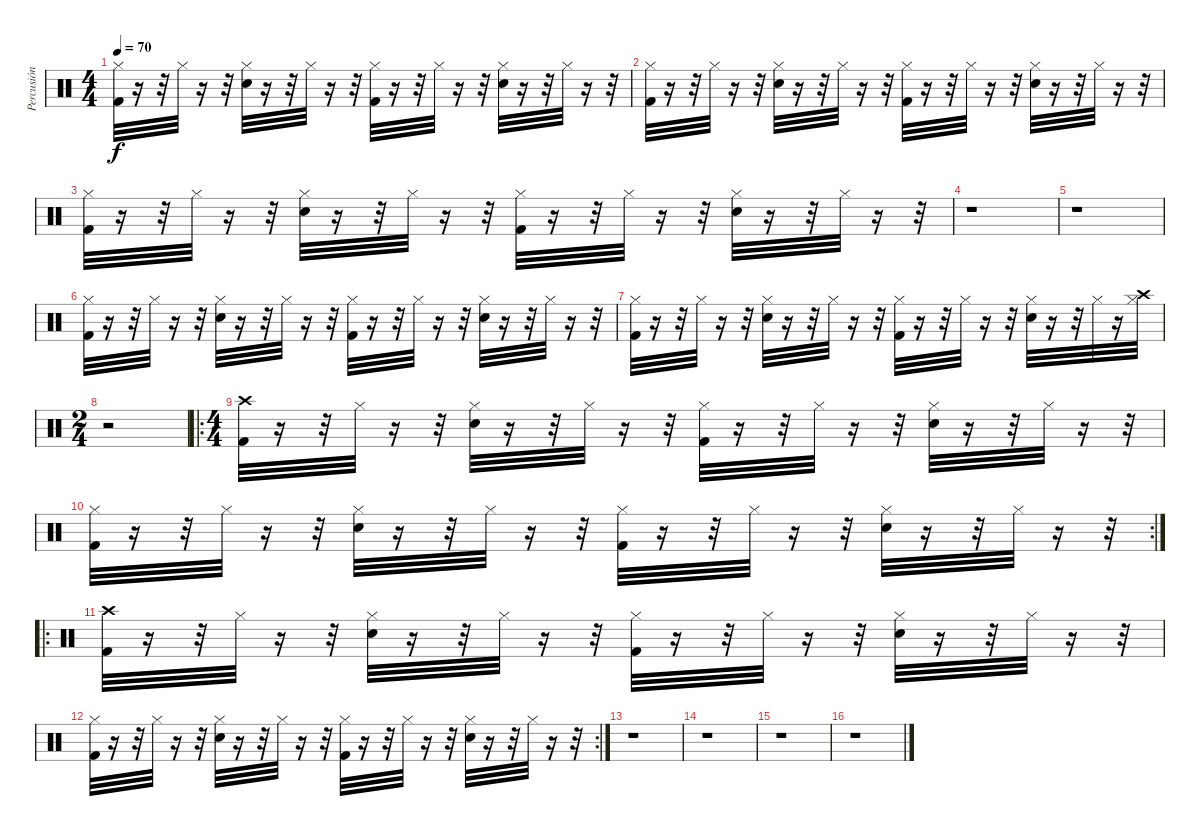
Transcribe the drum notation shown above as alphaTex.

\track ("Percusión" "Percusión") {instrument percussion}
\staff {score}
\articulation defaults
\ts (4 4)
\tempo 70
\clef neutral
\ks c
("Hi-Hat (closed)" "Kick (hit) 2").32{dy f} r.16 r.32 "Hi-Hat (closed)".32 r.16 r.32 ("Snare (hit) 2" "Hi-Hat (closed)").32 r.16 r.32 "Hi-Hat (closed)".32 r.16 r.32 ("Hi-Hat (closed)" "Kick (hit) 2").32 r.16 r.32 "Hi-Hat (closed)".32 r.16 r.32 ("Snare (hit) 2" "Hi-Hat (closed)").32 r.16 r.32 "Hi-Hat (closed)".32 r.16 r.32 |
("Hi-Hat (closed)" "Kick (hit) 2").32 r.16 r.32 "Hi-Hat (closed)".32 r.16 r.32 ("Snare (hit) 2" "Hi-Hat (closed)").32 r.16 r.32 "Hi-Hat (closed)".32 r.16 r.32 ("Hi-Hat (closed)" "Kick (hit) 2").32 r.16 r.32 "Hi-Hat (closed)".32 r.16 r.32 ("Snare (hit) 2" "Hi-Hat (closed)").32 r.16 r.32 "Hi-Hat (closed)".32 r.16 r.32 |
("Hi-Hat (closed)" "Kick (hit) 2").32 r.16 r.32 "Hi-Hat (closed)".32 r.16 r.32 ("Snare (hit) 2" "Hi-Hat (closed)").32 r.16 r.32 "Hi-Hat (closed)".32 r.16 r.32 ("Hi-Hat (closed)" "Kick (hit) 2").32 r.16 r.32 "Hi-Hat (closed)".32 r.16 r.32 ("Snare (hit) 2" "Hi-Hat (closed)").32 r.16 r.32 "Hi-Hat (closed)".32 r.16 r.32 |
r.1 |
r.1 |
("Hi-Hat (closed)" "Kick (hit) 2").32 r.16 r.32 "Hi-Hat (closed)".32 r.16 r.32 ("Snare (hit) 2" "Hi-Hat (closed)").32 r.16 r.32 "Hi-Hat (closed)".32 r.16 r.32 ("Hi-Hat (closed)" "Kick (hit) 2").32 r.16 r.32 "Hi-Hat (closed)".32 r.16 r.32 ("Snare (hit) 2" "Hi-Hat (closed)").32 r.16 r.32 "Hi-Hat (closed)".32 r.16 r.32 |
("Hi-Hat (closed)" "Kick (hit) 2").32 r.16 r.32 "Hi-Hat (closed)".32 r.16 r.32 ("Snare (hit) 2" "Hi-Hat (closed)").32 r.16 r.32 "Hi-Hat (closed)".32 r.16 r.32 ("Hi-Hat (closed)" "Kick (hit) 2").32 r.16 r.32 "Hi-Hat (closed)".32 r.16 r.32 ("Snare (hit) 2" "Hi-Hat (closed)").32 r.16 r.32 "Hi-Hat (closed)".32 r.16 ("Crash high (hit)" "Hi-Hat (closed)").32 |
\ts (2 4)
r.2 |
\ro
\ts (4 4)
("Kick (hit) 2" "Crash high (hit)").32 r.16 r.32 "Hi-Hat (closed)".32 r.16 r.32 ("Snare (hit) 2" "Hi-Hat (closed)").32 r.16 r.32 "Hi-Hat (closed)".32 r.16 r.32 ("Hi-Hat (closed)" "Kick (hit) 2").32 r.16 r.32 "Hi-Hat (closed)".32 r.16 r.32 ("Snare (hit) 2" "Hi-Hat (closed)").32 r.16 r.32 "Hi-Hat (closed)".32 r.16 r.32 |
\rc 2
("Hi-Hat (closed)" "Kick (hit) 2").32 r.16 r.32 "Hi-Hat (closed)".32 r.16 r.32 ("Snare (hit) 2" "Hi-Hat (closed)").32 r.16 r.32 "Hi-Hat (closed)".32 r.16 r.32 ("Hi-Hat (closed)" "Kick (hit) 2").32 r.16 r.32 "Hi-Hat (closed)".32 r.16 r.32 ("Snare (hit) 2" "Hi-Hat (closed)").32 r.16 r.32 "Hi-Hat (closed)".32 r.16 r.32 |
\ro
("Kick (hit) 2" "Crash high (hit)").32 r.16 r.32 "Hi-Hat (closed)".32 r.16 r.32 ("Snare (hit) 2" "Hi-Hat (closed)").32 r.16 r.32 "Hi-Hat (closed)".32 r.16 r.32 ("Hi-Hat (closed)" "Kick (hit) 2").32 r.16 r.32 "Hi-Hat (closed)".32 r.16 r.32 ("Snare (hit) 2" "Hi-Hat (closed)").32 r.16 r.32 "Hi-Hat (closed)".32 r.16 r.32 |
\rc 2
("Hi-Hat (closed)" "Kick (hit) 2").32 r.16 r.32 "Hi-Hat (closed)".32 r.16 r.32 ("Snare (hit) 2" "Hi-Hat (closed)").32 r.16 r.32 "Hi-Hat (closed)".32 r.16 r.32 ("Hi-Hat (closed)" "Kick (hit) 2").32 r.16 r.32 "Hi-Hat (closed)".32 r.16 r.32 ("Snare (hit) 2" "Hi-Hat (closed)").32 r.16 r.32 "Hi-Hat (closed)".32 r.16 r.32 |
r.1 |
r.1 |
r.1 |
r.1
